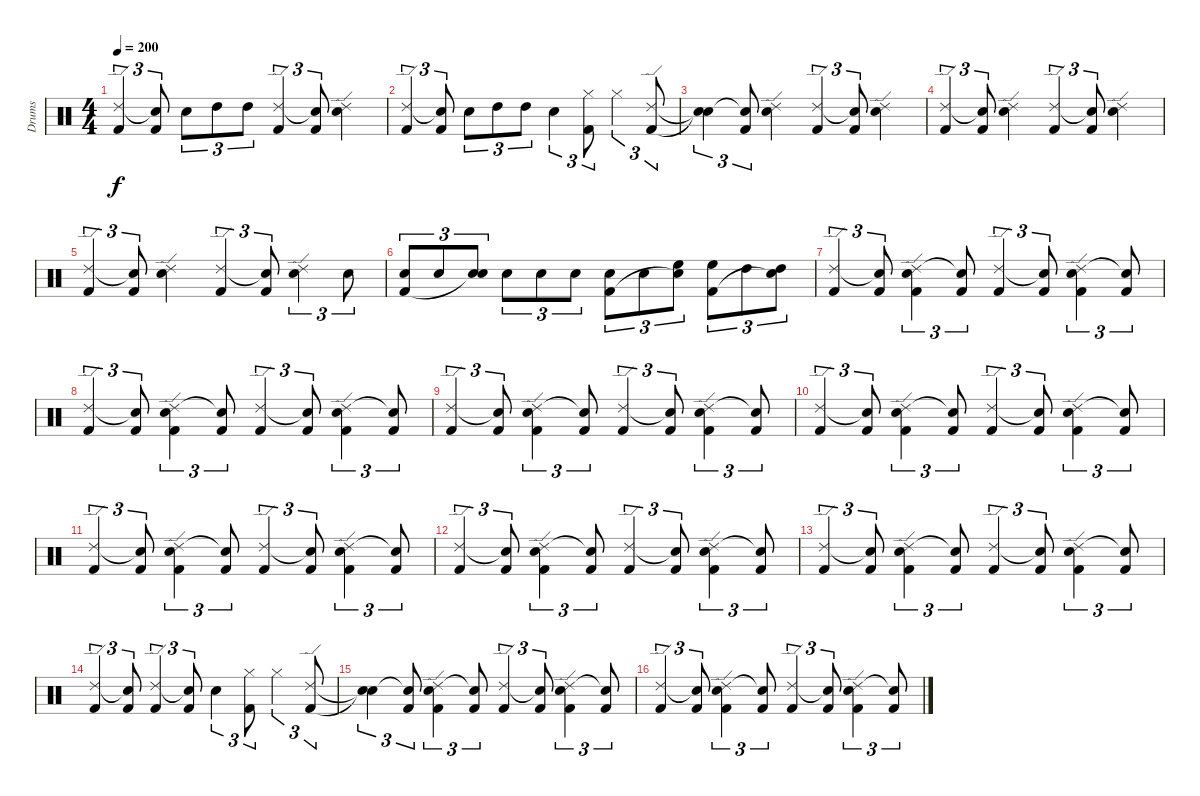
\track ("Drums" "Drums") {instrument percussion}
\staff {score}
\articulation defaults
\ts (4 4)
\tempo 200
\clef neutral
\ks c
("Ride (edge) 2" "Kick (hit) 2").4{tu (3 2) dy f} ("Snare (hit)"{t} "Kick (hit) 2").8{tu (3 2)} "Snare (hit) 2".8{tu (3 2)} "High Tom (hit)".8{tu (3 2)} "High Tom (hit)".8{tu (3 2)} ("Ride (edge) 2" "Kick (hit) 2").4{tu (3 2)} ("Snare (hit)"{t} "Kick (hit) 2").8{tu (3 2)} ("Ride (edge) 2" "Snare (hit) 2").4 |
("Ride (edge) 2" "Kick (hit) 2").4{tu (3 2)} ("Snare (hit)"{t} "Kick (hit) 2").8{tu (3 2)} "Snare (hit) 2".8{tu (3 2)} "High Tom (hit)".8{tu (3 2)} "High Tom (hit)".8{tu (3 2)} "Snare (hit) 2".4{tu (3 2)} ("Hi-Hat (closed)" "Kick (hit) 2").8{tu (3 2)} "Hi-Hat (closed)".4{tu (3 2)} ("Ride (edge) 2" "Kick (hit) 2").8{tu (3 2)} |
("Snare (hit)"{t} "Snare (hit)"{t}).4{tu (3 2)} ("Snare (hit)"{t} "Kick (hit) 2").8{tu (3 2)} ("Ride (edge) 2" "Snare (hit) 2").4 ("Ride (edge) 2" "Kick (hit) 2").4{tu (3 2)} ("Snare (hit)"{t} "Kick (hit) 2").8{tu (3 2)} ("Ride (edge) 2" "Snare (hit) 2").4 |
("Ride (edge) 2" "Kick (hit) 2").4{tu (3 2)} ("Snare (hit)"{t} "Kick (hit) 2").8{tu (3 2)} ("Ride (edge) 2" "Snare (hit) 2").4 ("Ride (edge) 2" "Kick (hit) 2").4{tu (3 2)} ("Snare (hit)"{t} "Kick (hit) 2").8{tu (3 2)} ("Ride (edge) 2" "Snare (hit) 2").4 |
("Ride (edge) 2" "Kick (hit) 2").4{tu (3 2)} ("Snare (hit)"{t} "Kick (hit) 2").8{tu (3 2)} ("Ride (edge) 2" "Snare (hit) 2").4 ("Ride (edge) 2" "Kick (hit) 2").4{tu (3 2)} ("Snare (hit)"{t} "Kick (hit) 2").8{tu (3 2)} ("Ride (edge) 2" "Snare (hit) 2").4{tu (3 2)} "Snare (hit) 2".8{tu (3 2)} |
("Snare (hit) 2" "Kick (hit) 2").8{tu (3 2)} "Snare (hit) 2".8{tu (3 2)} ("Snare (hit) 2" "Snare (hit)"{t}).8{tu (3 2)} "Snare (hit) 2".8{tu (3 2)} "Snare (hit) 2".8{tu (3 2)} "Snare (hit) 2".8{tu (3 2)} ("Snare (hit) 2" "Kick (hit) 2").8{tu (3 2)} "Snare (hit) 2".8{tu (3 2)} ("High Floor Tom (hit)" "Snare (hit)"{t}).8{tu (3 2)} ("High Floor Tom (hit)" "Kick (hit) 2").8{tu (3 2)} "High Tom (hit)".8{tu (3 2)} ("High Tom (hit)" "Snare (hit)"{t}).8{tu (3 2)} |
("Ride (edge) 2" "Kick (hit) 2").4{tu (3 2)} ("Snare (hit)"{t} "Kick (hit) 2").8{tu (3 2)} ("Ride (edge) 2" "Snare (hit) 2" "Kick (hit) 2").4{tu (3 2)} ("Snare (hit)"{t} "Kick (hit) 2").8{tu (3 2)} ("Ride (edge) 2" "Kick (hit) 2").4{tu (3 2)} ("Snare (hit)"{t} "Kick (hit) 2").8{tu (3 2)} ("Ride (edge) 2" "Snare (hit) 2" "Kick (hit) 2").4{tu (3 2)} ("Snare (hit)"{t} "Kick (hit) 2").8{tu (3 2)} |
("Ride (edge) 2" "Kick (hit) 2").4{tu (3 2)} ("Snare (hit)"{t} "Kick (hit) 2").8{tu (3 2)} ("Ride (edge) 2" "Snare (hit) 2" "Kick (hit) 2").4{tu (3 2)} ("Snare (hit)"{t} "Kick (hit) 2").8{tu (3 2)} ("Ride (edge) 2" "Kick (hit) 2").4{tu (3 2)} ("Snare (hit)"{t} "Kick (hit) 2").8{tu (3 2)} ("Ride (edge) 2" "Snare (hit) 2" "Kick (hit) 2").4{tu (3 2)} ("Snare (hit)"{t} "Kick (hit) 2").8{tu (3 2)} |
("Ride (edge) 2" "Kick (hit) 2").4{tu (3 2)} ("Snare (hit)"{t} "Kick (hit) 2").8{tu (3 2)} ("Ride (edge) 2" "Snare (hit) 2" "Kick (hit) 2").4{tu (3 2)} ("Snare (hit)"{t} "Kick (hit) 2").8{tu (3 2)} ("Ride (edge) 2" "Kick (hit) 2").4{tu (3 2)} ("Snare (hit)"{t} "Kick (hit) 2").8{tu (3 2)} ("Ride (edge) 2" "Snare (hit) 2" "Kick (hit) 2").4{tu (3 2)} ("Snare (hit)"{t} "Kick (hit) 2").8{tu (3 2)} |
("Ride (edge) 2" "Kick (hit) 2").4{tu (3 2)} ("Snare (hit)"{t} "Kick (hit) 2").8{tu (3 2)} ("Ride (edge) 2" "Snare (hit) 2" "Kick (hit) 2").4{tu (3 2)} ("Snare (hit)"{t} "Kick (hit) 2").8{tu (3 2)} ("Ride (edge) 2" "Kick (hit) 2").4{tu (3 2)} ("Snare (hit)"{t} "Kick (hit) 2").8{tu (3 2)} ("Ride (edge) 2" "Snare (hit) 2" "Kick (hit) 2").4{tu (3 2)} ("Snare (hit)"{t} "Kick (hit) 2").8{tu (3 2)} |
("Ride (edge) 2" "Kick (hit) 2").4{tu (3 2)} ("Snare (hit)"{t} "Kick (hit) 2").8{tu (3 2)} ("Ride (edge) 2" "Snare (hit) 2" "Kick (hit) 2").4{tu (3 2)} ("Snare (hit)"{t} "Kick (hit) 2").8{tu (3 2)} ("Ride (edge) 2" "Kick (hit) 2").4{tu (3 2)} ("Snare (hit)"{t} "Kick (hit) 2").8{tu (3 2)} ("Ride (edge) 2" "Snare (hit) 2" "Kick (hit) 2").4{tu (3 2)} ("Snare (hit)"{t} "Kick (hit) 2").8{tu (3 2)} |
("Ride (edge) 2" "Kick (hit) 2").4{tu (3 2)} ("Snare (hit)"{t} "Kick (hit) 2").8{tu (3 2)} ("Ride (edge) 2" "Snare (hit) 2" "Kick (hit) 2").4{tu (3 2)} ("Snare (hit)"{t} "Kick (hit) 2").8{tu (3 2)} ("Ride (edge) 2" "Kick (hit) 2").4{tu (3 2)} ("Snare (hit)"{t} "Kick (hit) 2").8{tu (3 2)} ("Ride (edge) 2" "Snare (hit) 2" "Kick (hit) 2").4{tu (3 2)} ("Snare (hit)"{t} "Kick (hit) 2").8{tu (3 2)} |
("Ride (edge) 2" "Kick (hit) 2").4{tu (3 2)} ("Snare (hit)"{t} "Kick (hit) 2").8{tu (3 2)} ("Ride (edge) 2" "Snare (hit) 2" "Kick (hit) 2").4{tu (3 2)} ("Snare (hit)"{t} "Kick (hit) 2").8{tu (3 2)} ("Ride (edge) 2" "Kick (hit) 2").4{tu (3 2)} ("Snare (hit)"{t} "Kick (hit) 2").8{tu (3 2)} ("Ride (edge) 2" "Snare (hit) 2" "Kick (hit) 2").4{tu (3 2)} ("Snare (hit)"{t} "Kick (hit) 2").8{tu (3 2)} |
("Ride (edge) 2" "Kick (hit) 2").4{tu (3 2)} ("Snare (hit)"{t} "Kick (hit) 2").8{tu (3 2)} ("Ride (edge) 2" "Kick (hit) 2").4{tu (3 2)} ("Snare (hit)"{t} "Kick (hit) 2").8{tu (3 2)} "Snare (hit) 2".4{tu (3 2)} ("Hi-Hat (closed)" "Kick (hit) 2").8{tu (3 2)} "Hi-Hat (closed)".4{tu (3 2)} ("Ride (edge) 2" "Kick (hit) 2").8{tu (3 2)} |
("Snare (hit)"{t} "Snare (hit)"{t}).4{tu (3 2)} ("Snare (hit)"{t} "Kick (hit) 2").8{tu (3 2)} ("Ride (edge) 2" "Snare (hit) 2" "Kick (hit) 2").4{tu (3 2)} ("Snare (hit)"{t} "Kick (hit) 2").8{tu (3 2)} ("Ride (edge) 2" "Kick (hit) 2").4{tu (3 2)} ("Snare (hit)"{t} "Kick (hit) 2").8{tu (3 2)} ("Ride (edge) 2" "Snare (hit) 2" "Kick (hit) 2").4{tu (3 2)} ("Snare (hit)"{t} "Kick (hit) 2").8{tu (3 2)} |
("Ride (edge) 2" "Kick (hit) 2").4{tu (3 2)} ("Snare (hit)"{t} "Kick (hit) 2").8{tu (3 2)} ("Ride (edge) 2" "Snare (hit) 2" "Kick (hit) 2").4{tu (3 2)} ("Snare (hit)"{t} "Kick (hit) 2").8{tu (3 2)} ("Ride (edge) 2" "Kick (hit) 2").4{tu (3 2)} ("Snare (hit)"{t} "Kick (hit) 2").8{tu (3 2)} ("Ride (edge) 2" "Snare (hit) 2" "Kick (hit) 2").4{tu (3 2)} ("Snare (hit)"{t} "Kick (hit) 2").8{tu (3 2)}
